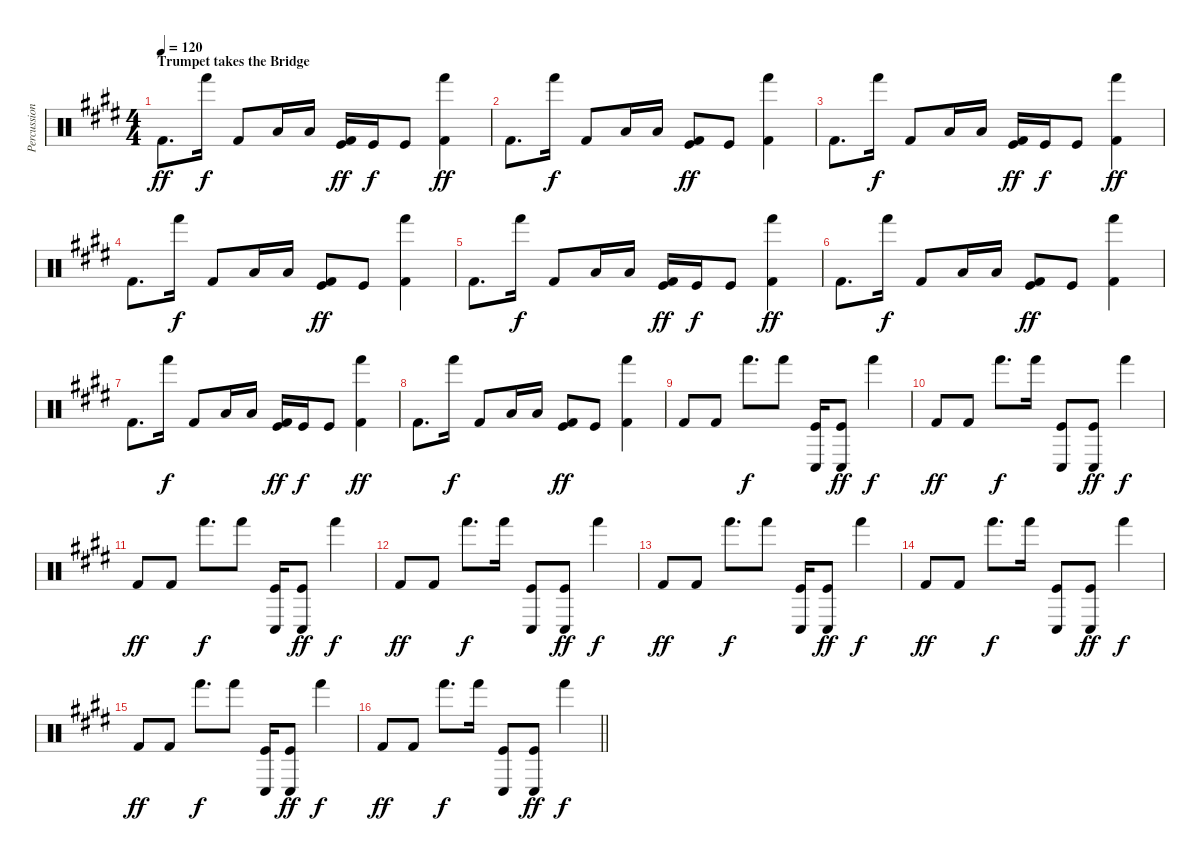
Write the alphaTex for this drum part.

\track ("Percussion" "Percussion") {instrument percussion}
\staff {score}
\articulation defaults
\ts (4 4)
\section ("" "Trumpet takes the Bridge ")
\tempo 120
\clef neutral
\ks e "Kick (hit) 2".8{d dy ff} "Hand (hit)".16{dy f} "Kick (hit) 2".8 "Low Floor Tom (hit)".16 "Low Floor Tom (hit)".16
("Kick (hit)" "Kick (hit) 2").16{dy ff} "Kick (hit)".16{dy f} "Kick (hit)".8 ("Hand (hit)" "Kick (hit) 2").4{dy ff} |
"Kick (hit) 2".8{d} "Hand (hit)".16{dy f} "Kick (hit) 2".8 "Low Floor Tom (hit)".16 "Low Floor Tom (hit)".16 ("Kick (hit)" "Kick (hit) 2").8{dy ff} "Kick (hit)".8 ("Hand (hit)" "Kick (hit) 2").4 |
"Kick (hit) 2".8{d} "Hand (hit)".16{dy f} "Kick (hit) 2".8 "Low Floor Tom (hit)".16 "Low Floor Tom (hit)".16 ("Kick (hit)" "Kick (hit) 2").16{dy ff} "Kick (hit)".16{dy f} "Kick (hit)".8 ("Hand (hit)" "Kick (hit) 2").4{dy ff} |
"Kick (hit) 2".8{d} "Hand (hit)".16{dy f} "Kick (hit) 2".8 "Low Floor Tom (hit)".16 "Low Floor Tom (hit)".16 ("Kick (hit)" "Kick (hit) 2").8{dy ff} "Kick (hit)".8 ("Hand (hit)" "Kick (hit) 2").4 |
"Kick (hit) 2".8{d} "Hand (hit)".16{dy f} "Kick (hit) 2".8 "Low Floor Tom (hit)".16 "Low Floor Tom (hit)".16 ("Kick (hit)" "Kick (hit) 2").16{dy ff} "Kick (hit)".16{dy f} "Kick (hit)".8 ("Hand (hit)" "Kick (hit) 2").4{dy ff} |
"Kick (hit) 2".8{d} "Hand (hit)".16{dy f} "Kick (hit) 2".8 "Low Floor Tom (hit)".16 "Low Floor Tom (hit)".16 ("Kick (hit)" "Kick (hit) 2").8{dy ff} "Kick (hit)".8 ("Hand (hit)" "Kick (hit) 2").4 |
"Kick (hit) 2".8{d} "Hand (hit)".16{dy f} "Kick (hit) 2".8 "Low Floor Tom (hit)".16 "Low Floor Tom (hit)".16 ("Kick (hit)" "Kick (hit) 2").16{dy ff} "Kick (hit)".16{dy f} "Kick (hit)".8 ("Hand (hit)" "Kick (hit) 2").4{dy ff} |
"Kick (hit) 2".8{d} "Hand (hit)".16{dy f} "Kick (hit) 2".8 "Low Floor Tom (hit)".16 "Low Floor Tom (hit)".16 ("Kick (hit)" "Kick (hit) 2").8{dy ff} "Kick (hit)".8 ("Hand (hit)" "Kick (hit) 2").4 |
"Kick (hit) 2".8 "Kick (hit) 2".8 "Hand (hit)".8{d dy f} "Hand (hit)".8 ("Conga low (hit)" "Kick (hit)").16 ("Conga low (hit)" "Kick (hit)").8{dy ff} "Hand (hit)".4{dy f} |
"Kick (hit) 2".8{dy ff} "Kick (hit) 2".8 "Hand (hit)".8{d dy f} "Hand (hit)".16 ("Conga low (hit)" "Kick (hit)").8 ("Conga low (hit)" "Kick (hit)").8{dy ff} "Hand (hit)".4{dy f} |
"Kick (hit) 2".8{dy ff} "Kick (hit) 2".8 "Hand (hit)".8{d dy f} "Hand (hit)".8 ("Conga low (hit)" "Kick (hit)").16 ("Conga low (hit)" "Kick (hit)").8{dy ff} "Hand (hit)".4{dy f} |
"Kick (hit) 2".8{dy ff} "Kick (hit) 2".8 "Hand (hit)".8{d dy f} "Hand (hit)".16 ("Conga low (hit)" "Kick (hit)").8 ("Conga low (hit)" "Kick (hit)").8{dy ff} "Hand (hit)".4{dy f} |
"Kick (hit) 2".8{dy ff} "Kick (hit) 2".8 "Hand (hit)".8{d dy f} "Hand (hit)".8 ("Conga low (hit)" "Kick (hit)").16 ("Conga low (hit)" "Kick (hit)").8{dy ff} "Hand (hit)".4{dy f} |
"Kick (hit) 2".8{dy ff} "Kick (hit) 2".8 "Hand (hit)".8{d dy f} "Hand (hit)".16 ("Conga low (hit)" "Kick (hit)").8 ("Conga low (hit)" "Kick (hit)").8{dy ff} "Hand (hit)".4{dy f} |
"Kick (hit) 2".8{dy ff} "Kick (hit) 2".8 "Hand (hit)".8{d dy f} "Hand (hit)".8 ("Conga low (hit)" "Kick (hit)").16 ("Conga low (hit)" "Kick (hit)").8{dy ff} "Hand (hit)".4{dy f} |
\barLineRight lightlight "Kick (hit) 2".8{dy ff} "Kick (hit) 2".8 "Hand (hit)".8{d dy f} "Hand (hit)".16
("Conga low (hit)" "Kick (hit)").8 ("Conga low (hit)" "Kick (hit)").8{dy ff} "Hand (hit)".4{dy f}
